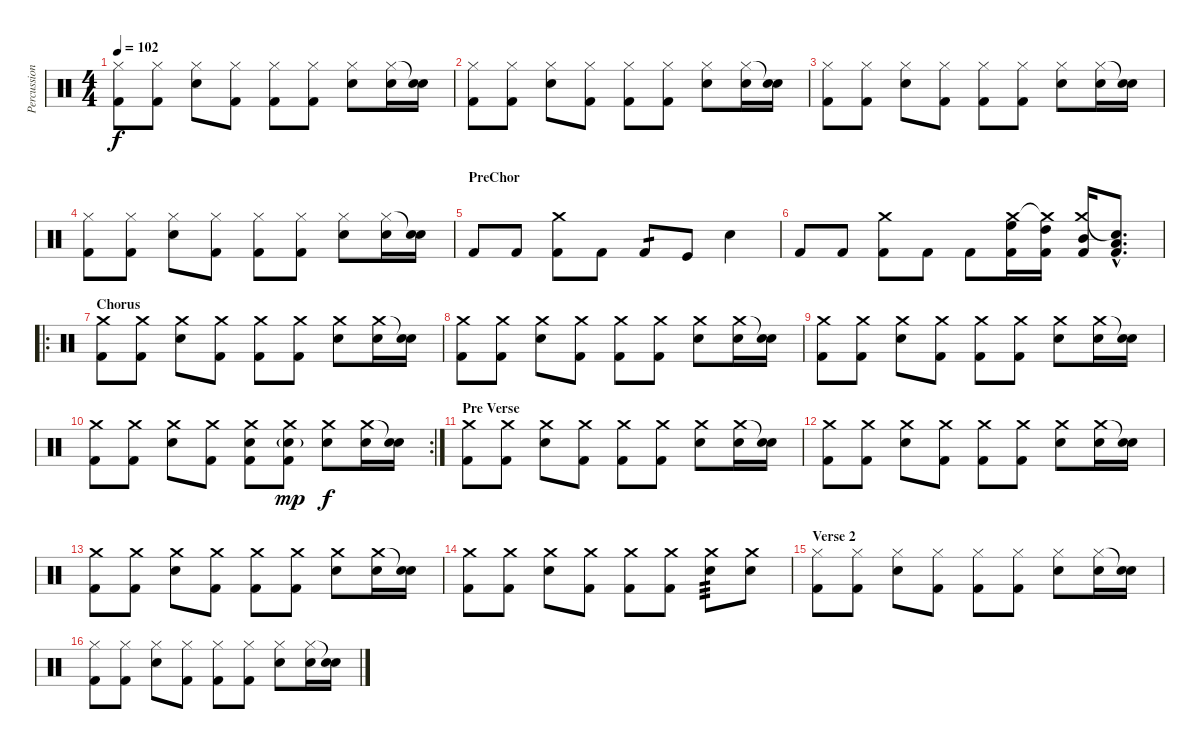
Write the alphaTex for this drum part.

\track ("Percussion" "Percussion") {instrument percussion}
\staff {score}
\articulation defaults
\ts (4 4)
\tempo 102
\clef neutral
\ks c
("Hi-Hat (closed)" "Kick (hit) 2").8{dy f} ("Hi-Hat (closed)" "Kick (hit) 2").8 ("Hi-Hat (closed)" "Snare (hit) 2").8 ("Hi-Hat (closed)" "Kick (hit) 2"{tr (36 16)}).8 ("Hi-Hat (closed)" "Kick (hit) 2").8 ("Hi-Hat (closed)" "Kick (hit) 2").8 ("Hi-Hat (closed)" "Snare (hit) 2").8 ("Hi-Hat (closed)" "Snare (hit) 2").16 ("Snare (hit)"{t} "Snare (hit) 2").16 |
("Hi-Hat (closed)" "Kick (hit) 2").8 ("Hi-Hat (closed)" "Kick (hit) 2").8 ("Hi-Hat (closed)" "Snare (hit) 2").8 ("Hi-Hat (closed)" "Kick (hit) 2"{tr (36 16)}).8 ("Hi-Hat (closed)" "Kick (hit) 2").8 ("Hi-Hat (closed)" "Kick (hit) 2").8 ("Hi-Hat (closed)" "Snare (hit) 2").8 ("Hi-Hat (closed)" "Snare (hit) 2").16 ("Snare (hit)"{t} "Snare (hit) 2").16 |
("Hi-Hat (closed)" "Kick (hit) 2").8 ("Hi-Hat (closed)" "Kick (hit) 2").8 ("Hi-Hat (closed)" "Snare (hit) 2").8 ("Hi-Hat (closed)" "Kick (hit) 2"{tr (36 16)}).8 ("Hi-Hat (closed)" "Kick (hit) 2").8 ("Hi-Hat (closed)" "Kick (hit) 2").8 ("Hi-Hat (closed)" "Snare (hit) 2").8 ("Hi-Hat (closed)" "Snare (hit) 2").16 ("Snare (hit)"{t} "Snare (hit) 2").16 |
("Hi-Hat (closed)" "Kick (hit) 2").8 ("Hi-Hat (closed)" "Kick (hit) 2").8 ("Hi-Hat (closed)" "Snare (hit) 2").8 ("Hi-Hat (closed)" "Kick (hit) 2"{tr (36 16)}).8 ("Hi-Hat (closed)" "Kick (hit) 2").8 ("Hi-Hat (closed)" "Kick (hit) 2").8 ("Hi-Hat (closed)" "Snare (hit) 2").8 ("Hi-Hat (closed)" "Snare (hit) 2").16 ("Snare (hit)"{t} "Snare (hit) 2").16 |
\section ("" "PreChor")
"Kick (hit) 2".8 "Kick (hit) 2".8 ("Crash medium (hit)" "Kick (hit) 2").8 "Kick (hit) 2"{tr (36 16)}.8 "Kick (hit) 2".8{tp 1} "Kick (hit)".8 "Hand Clap (hit)".4 |
"Kick (hit) 2".8 "Kick (hit) 2".8 ("Crash medium (hit)" "Kick (hit) 2").8 "Kick (hit) 2".8 "Kick (hit) 2".8 ("Crash medium (hit)" "High Floor Tom (hit)" "Kick (hit) 2").16 ("Crash medium (hit)"{t} "High Tom (hit)" "Kick (hit) 2").16 ("Crash medium (hit)" "Mid Tom (hit)" "Kick (hit) 2").16 ("Snare (hit)"{hac t} "Low Tom (hit)"{tr (45 16) hac} "Kick (hit) 2"{hac}).8{d} |
\ro
\section ("" "Chorus")
("Crash medium (hit)" "Kick (hit) 2").8 ("Crash medium (hit)" "Kick (hit) 2").8 ("Crash medium (hit)" "Snare (hit) 2").8 ("Crash medium (hit)" "Kick (hit) 2"{tr (36 16)}).8 ("Crash medium (hit)" "Kick (hit) 2").8 ("Crash medium (hit)" "Kick (hit) 2").8 ("Crash medium (hit)" "Snare (hit) 2").8 ("Crash medium (hit)" "Snare (hit) 2").16 ("Snare (hit)"{t} "Snare (hit) 2").16 |
("Crash medium (hit)" "Kick (hit) 2").8 ("Crash medium (hit)" "Kick (hit) 2").8 ("Crash medium (hit)" "Snare (hit) 2").8 ("Crash medium (hit)" "Kick (hit) 2"{tr (36 16)}).8 ("Crash medium (hit)" "Kick (hit) 2").8 ("Crash medium (hit)" "Kick (hit) 2").8 ("Crash medium (hit)" "Snare (hit) 2").8 ("Crash medium (hit)" "Snare (hit) 2").16 ("Snare (hit)"{t} "Snare (hit) 2").16 |
("Crash medium (hit)" "Kick (hit) 2").8 ("Crash medium (hit)" "Kick (hit) 2").8 ("Crash medium (hit)" "Snare (hit) 2").8 ("Crash medium (hit)" "Kick (hit) 2"{tr (36 16)}).8 ("Crash medium (hit)" "Kick (hit) 2").8 ("Crash medium (hit)" "Kick (hit) 2").8 ("Crash medium (hit)" "Snare (hit) 2").8 ("Crash medium (hit)" "Snare (hit) 2").16 ("Snare (hit)"{t} "Snare (hit) 2").16 |
\rc 2
("Crash medium (hit)" "Kick (hit) 2").8 ("Crash medium (hit)" "Kick (hit) 2").8 ("Crash medium (hit)" "Snare (hit) 2").8 ("Crash medium (hit)" "Kick (hit) 2"{tr (36 16)}).8 ("Crash medium (hit)" "Snare (hit) 2" "Kick (hit) 2").8 ("Crash medium (hit)" "Snare (hit) 2"{tr (38 16) g} "Kick (hit) 2").8{dy mp} ("Crash medium (hit)" "Snare (hit) 2").8{dy f} ("Crash medium (hit)" "Snare (hit) 2").16 ("Snare (hit)"{t} "Snare (hit) 2").16 |
\section ("" "Pre Verse")
("Crash medium (hit)" "Kick (hit) 2").8 ("Crash medium (hit)" "Kick (hit) 2").8 ("Crash medium (hit)" "Snare (hit) 2").8 ("Crash medium (hit)" "Kick (hit) 2"{tr (36 16)}).8 ("Crash medium (hit)" "Kick (hit) 2").8 ("Crash medium (hit)" "Kick (hit) 2").8 ("Crash medium (hit)" "Snare (hit) 2").8 ("Crash medium (hit)" "Snare (hit) 2").16 ("Snare (hit)"{t} "Snare (hit) 2").16 |
("Crash medium (hit)" "Kick (hit) 2").8 ("Crash medium (hit)" "Kick (hit) 2").8 ("Crash medium (hit)" "Snare (hit) 2").8 ("Crash medium (hit)" "Kick (hit) 2"{tr (36 16)}).8 ("Crash medium (hit)" "Kick (hit) 2").8 ("Crash medium (hit)" "Kick (hit) 2").8 ("Crash medium (hit)" "Snare (hit) 2").8 ("Crash medium (hit)" "Snare (hit) 2").16 ("Snare (hit)"{t} "Snare (hit) 2").16 |
("Crash medium (hit)" "Kick (hit) 2").8 ("Crash medium (hit)" "Kick (hit) 2").8 ("Crash medium (hit)" "Snare (hit) 2").8 ("Crash medium (hit)" "Kick (hit) 2"{tr (36 16)}).8 ("Crash medium (hit)" "Kick (hit) 2").8 ("Crash medium (hit)" "Kick (hit) 2").8 ("Crash medium (hit)" "Snare (hit) 2").8 ("Crash medium (hit)" "Snare (hit) 2").16 ("Snare (hit)"{t} "Snare (hit) 2").16 |
("Crash medium (hit)" "Kick (hit) 2").8 ("Crash medium (hit)" "Kick (hit) 2").8 ("Crash medium (hit)" "Snare (hit) 2").8 ("Crash medium (hit)" "Kick (hit) 2"{tr (36 16)}).8 ("Crash medium (hit)" "Kick (hit) 2").8 ("Crash medium (hit)" "Kick (hit) 2").8 ("Crash medium (hit)" "Snare (hit) 2").8{tp 3} ("Crash medium (hit)" "Snare (hit) 2"{tr (38 16)}).8 |
\section ("" "Verse 2")
("Hi-Hat (closed)" "Kick (hit) 2").8 ("Hi-Hat (closed)" "Kick (hit) 2").8 ("Hi-Hat (closed)" "Snare (hit) 2").8 ("Hi-Hat (closed)" "Kick (hit) 2"{tr (36 16)}).8 ("Hi-Hat (closed)" "Kick (hit) 2").8 ("Hi-Hat (closed)" "Kick (hit) 2").8 ("Hi-Hat (closed)" "Snare (hit) 2").8 ("Hi-Hat (closed)" "Snare (hit) 2").16 ("Snare (hit)"{t} "Snare (hit) 2").16 |
("Hi-Hat (closed)" "Kick (hit) 2").8 ("Hi-Hat (closed)" "Kick (hit) 2").8 ("Hi-Hat (closed)" "Snare (hit) 2").8 ("Hi-Hat (closed)" "Kick (hit) 2"{tr (36 16)}).8 ("Hi-Hat (closed)" "Kick (hit) 2").8 ("Hi-Hat (closed)" "Kick (hit) 2").8 ("Hi-Hat (closed)" "Snare (hit) 2").8 ("Hi-Hat (closed)" "Snare (hit) 2").16 ("Snare (hit)"{t} "Snare (hit) 2").16
